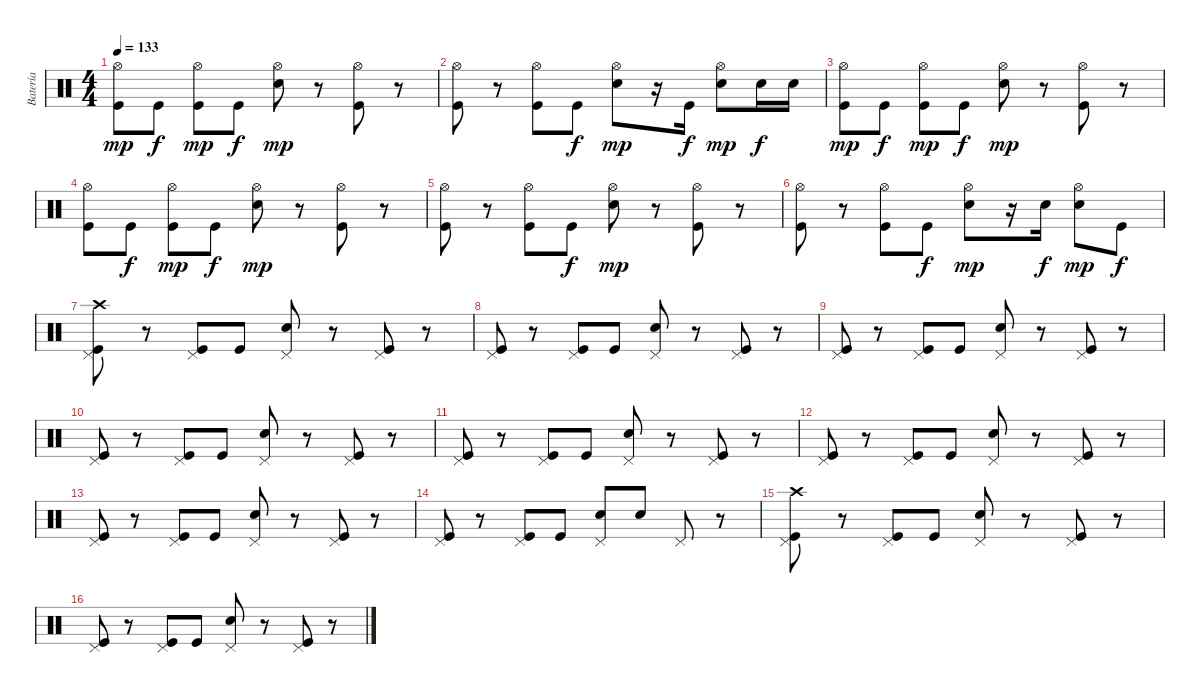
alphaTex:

\track ("Batería" "Batería") {instrument percussion}
\staff {score}
\articulation defaults
\ts (4 4)
\tempo 133
\clef neutral
\ks c
("Hi-Hat (open)" "Kick (hit)").8{dy mp} "Kick (hit)".8{dy f} ("Hi-Hat (open)" "Kick (hit)").8{dy mp} "Kick (hit)".8{dy f} ("Hi-Hat (open)" "Snare (hit) 2").8{dy mp} r.8 ("Hi-Hat (open)" "Kick (hit)").8 r.8 |
("Hi-Hat (open)" "Kick (hit)").8 r.8 ("Hi-Hat (open)" "Kick (hit)").8 "Kick (hit)".8{dy f} ("Hi-Hat (open)" "Snare (hit) 2").8{dy mp} r.16 "Kick (hit)".16{dy f} ("Hi-Hat (open)" "Snare (hit) 2").8{dy mp} "Snare (hit) 2".16{dy f} "Snare (hit) 2".16 |
("Hi-Hat (open)" "Kick (hit)").8{dy mp} "Kick (hit)".8{dy f} ("Hi-Hat (open)" "Kick (hit)").8{dy mp} "Kick (hit)".8{dy f} ("Hi-Hat (open)" "Snare (hit) 2").8{dy mp} r.8 ("Hi-Hat (open)" "Kick (hit)").8 r.8 |
("Hi-Hat (open)" "Kick (hit)").8 "Kick (hit)".8{dy f} ("Hi-Hat (open)" "Kick (hit)").8{dy mp} "Kick (hit)".8{dy f} ("Hi-Hat (open)" "Snare (hit) 2").8{dy mp} r.8 ("Hi-Hat (open)" "Kick (hit)").8 r.8 |
("Hi-Hat (open)" "Kick (hit)").8 r.8 ("Hi-Hat (open)" "Kick (hit)").8 "Kick (hit)".8{dy f} ("Hi-Hat (open)" "Snare (hit) 2").8{dy mp} r.8 ("Hi-Hat (open)" "Kick (hit)").8 r.8 |
("Hi-Hat (open)" "Kick (hit)").8 r.8 ("Hi-Hat (open)" "Kick (hit)").8 "Kick (hit)".8{dy f} ("Hi-Hat (open)" "Snare (hit) 2").8{dy mp} r.16 "Snare (hit) 2".16{dy f} ("Hi-Hat (open)" "Snare (hit) 2").8{dy mp} "Kick (hit)".8{dy f} |
("Pedal Hi-Hat (hit)" "Crash high (hit)" "Kick (hit)").8 r.8 ("Pedal Hi-Hat (hit)" "Kick (hit)").8 "Kick (hit)".8 ("Pedal Hi-Hat (hit)" "Snare (hit) 2").8 r.8 ("Pedal Hi-Hat (hit)" "Kick (hit)").8 r.8 |
("Pedal Hi-Hat (hit)" "Kick (hit)").8 r.8 ("Pedal Hi-Hat (hit)" "Kick (hit)").8 "Kick (hit)".8 ("Pedal Hi-Hat (hit)" "Snare (hit) 2").8 r.8 ("Pedal Hi-Hat (hit)" "Kick (hit)").8 r.8 |
("Pedal Hi-Hat (hit)" "Kick (hit)").8 r.8 ("Pedal Hi-Hat (hit)" "Kick (hit)").8 "Kick (hit)".8 ("Pedal Hi-Hat (hit)" "Snare (hit) 2").8 r.8 ("Pedal Hi-Hat (hit)" "Kick (hit)").8 r.8 |
("Pedal Hi-Hat (hit)" "Kick (hit)").8 r.8 ("Pedal Hi-Hat (hit)" "Kick (hit)").8 "Kick (hit)".8 ("Pedal Hi-Hat (hit)" "Snare (hit) 2").8 r.8 ("Pedal Hi-Hat (hit)" "Kick (hit)").8 r.8 |
("Pedal Hi-Hat (hit)" "Kick (hit)").8 r.8 ("Pedal Hi-Hat (hit)" "Kick (hit)").8 "Kick (hit)".8 ("Pedal Hi-Hat (hit)" "Snare (hit) 2").8 r.8 ("Pedal Hi-Hat (hit)" "Kick (hit)").8 r.8 |
("Pedal Hi-Hat (hit)" "Kick (hit)").8 r.8 ("Pedal Hi-Hat (hit)" "Kick (hit)").8 "Kick (hit)".8 ("Pedal Hi-Hat (hit)" "Snare (hit) 2").8 r.8 ("Pedal Hi-Hat (hit)" "Kick (hit)").8 r.8 |
("Pedal Hi-Hat (hit)" "Kick (hit)").8 r.8 ("Pedal Hi-Hat (hit)" "Kick (hit)").8 "Kick (hit)".8 ("Pedal Hi-Hat (hit)" "Snare (hit) 2").8 r.8 ("Pedal Hi-Hat (hit)" "Kick (hit)").8 r.8 |
("Pedal Hi-Hat (hit)" "Kick (hit)").8 r.8 ("Pedal Hi-Hat (hit)" "Kick (hit)").8 "Kick (hit)".8 ("Pedal Hi-Hat (hit)" "Snare (hit) 2").8 "Snare (hit) 2".8 "Pedal Hi-Hat (hit)".8 r.8 |
("Pedal Hi-Hat (hit)" "Crash high (hit)" "Kick (hit)").8 r.8 ("Pedal Hi-Hat (hit)" "Kick (hit)").8 "Kick (hit)".8 ("Pedal Hi-Hat (hit)" "Snare (hit) 2").8 r.8 ("Pedal Hi-Hat (hit)" "Kick (hit)").8 r.8 |
("Pedal Hi-Hat (hit)" "Kick (hit)").8 r.8 ("Pedal Hi-Hat (hit)" "Kick (hit)").8 "Kick (hit)".8 ("Pedal Hi-Hat (hit)" "Snare (hit) 2").8 r.8 ("Pedal Hi-Hat (hit)" "Kick (hit)").8 r.8
